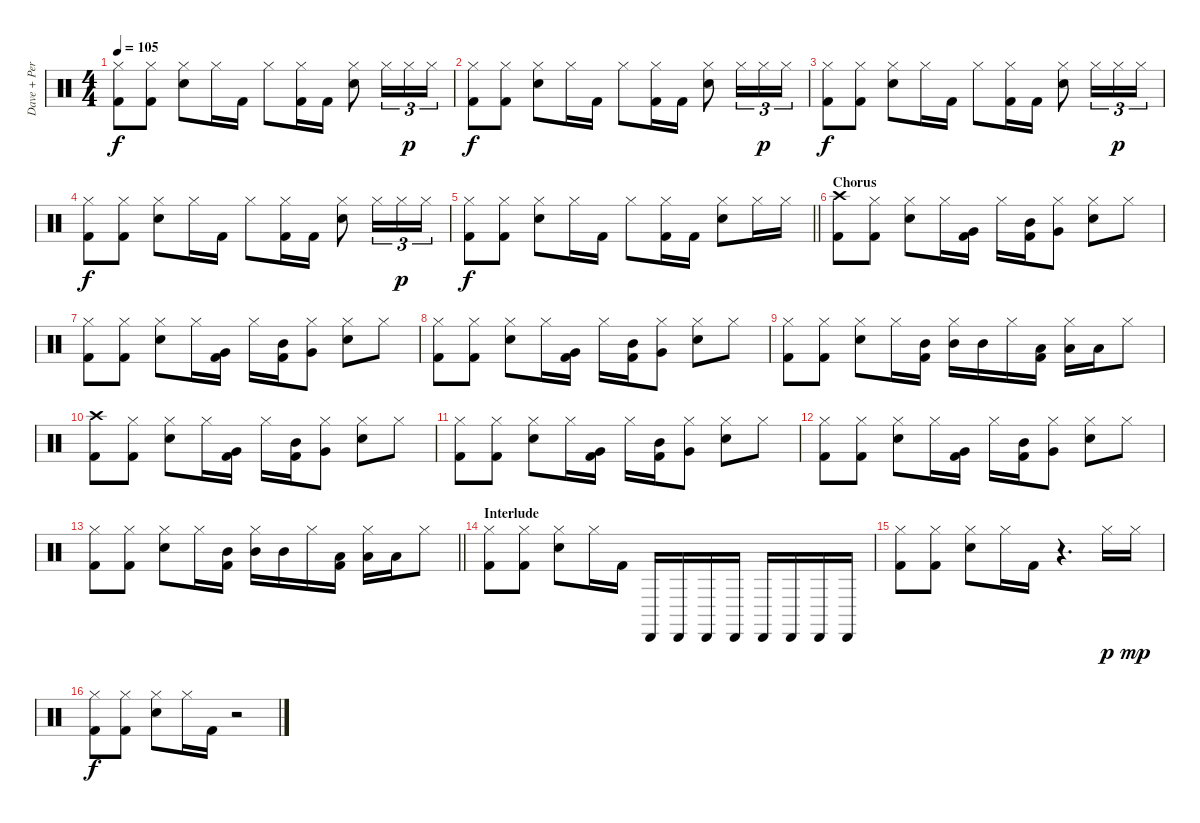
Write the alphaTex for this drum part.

\track ("Dave + Perc" "Dave + Per") {instrument percussion}
\staff {score}
\articulation defaults
\ts (4 4)
\tempo 105
\clef neutral
\ks c
("Hi-Hat (closed)" "Kick (hit) 2").8{dy f} ("Hi-Hat (closed)" "Kick (hit) 2").8 ("Hi-Hat (closed)" "Snare (hit) 2").8 "Hi-Hat (closed)".16 "Kick (hit) 2".16 "Hi-Hat (closed)".8 ("Hi-Hat (closed)" "Kick (hit) 2").16 "Kick (hit) 2".16 ("Hi-Hat (closed)" "Snare (hit) 2").8 "Hi-Hat (closed)".16{tu (3 2)} "Hi-Hat (closed)".16{tu (3 2) dy p} "Hi-Hat (closed)".16{tu (3 2)} |
("Hi-Hat (closed)" "Kick (hit) 2").8{dy f} ("Hi-Hat (closed)" "Kick (hit) 2").8 ("Hi-Hat (closed)" "Snare (hit) 2").8 "Hi-Hat (closed)".16 "Kick (hit) 2".16 "Hi-Hat (closed)".8 ("Hi-Hat (closed)" "Kick (hit) 2").16 "Kick (hit) 2".16 ("Hi-Hat (closed)" "Snare (hit) 2").8 "Hi-Hat (closed)".16{tu (3 2)} "Hi-Hat (closed)".16{tu (3 2) dy p} "Hi-Hat (closed)".16{tu (3 2)} |
("Hi-Hat (closed)" "Kick (hit) 2").8{dy f} ("Hi-Hat (closed)" "Kick (hit) 2").8 ("Hi-Hat (closed)" "Snare (hit) 2").8 "Hi-Hat (closed)".16 "Kick (hit) 2".16 "Hi-Hat (closed)".8 ("Hi-Hat (closed)" "Kick (hit) 2").16 "Kick (hit) 2".16 ("Hi-Hat (closed)" "Snare (hit) 2").8 "Hi-Hat (closed)".16{tu (3 2)} "Hi-Hat (closed)".16{tu (3 2) dy p} "Hi-Hat (closed)".16{tu (3 2)} |
("Hi-Hat (closed)" "Kick (hit) 2").8{dy f} ("Hi-Hat (closed)" "Kick (hit) 2").8 ("Hi-Hat (closed)" "Snare (hit) 2").8 "Hi-Hat (closed)".16 "Kick (hit) 2".16 "Hi-Hat (closed)".8 ("Hi-Hat (closed)" "Kick (hit) 2").16 "Kick (hit) 2".16 ("Hi-Hat (closed)" "Snare (hit) 2").8 "Hi-Hat (closed)".16{tu (3 2)} "Hi-Hat (closed)".16{tu (3 2) dy p} "Hi-Hat (closed)".16{tu (3 2)} |
\barLineRight lightlight
("Hi-Hat (closed)" "Kick (hit) 2").8{dy f} ("Hi-Hat (closed)" "Kick (hit) 2").8 ("Hi-Hat (closed)" "Snare (hit) 2").8 "Hi-Hat (closed)".16 "Kick (hit) 2".16 "Hi-Hat (closed)".8 ("Hi-Hat (closed)" "Kick (hit) 2").16 "Kick (hit) 2".16 ("Hi-Hat (closed)" "Snare (hit) 2").8 "Hi-Hat (closed)".16 "Hi-Hat (closed)".16 |
\section ("" "Chorus")
("Crash high (hit)" "Kick (hit) 2").8 ("Hi-Hat (closed)" "Kick (hit) 2").8 ("Hi-Hat (closed)" "Snare (hit) 2").8 "Hi-Hat (closed)".16 ("Very Low Tom (hit)" "Kick (hit) 2").16 "Hi-Hat (closed)".16 ("Mid Tom (hit)" "Kick (hit) 2").16 ("Hi-Hat (closed)" "Very Low Tom (hit)").8 ("Hi-Hat (closed)" "Snare (hit) 2").8 "Hi-Hat (closed)".8 |
("Hi-Hat (closed)" "Kick (hit) 2").8 ("Hi-Hat (closed)" "Kick (hit) 2").8 ("Hi-Hat (closed)" "Snare (hit) 2").8 "Hi-Hat (closed)".16 ("Very Low Tom (hit)" "Kick (hit) 2").16 "Hi-Hat (closed)".16 ("Mid Tom (hit)" "Kick (hit) 2").16 ("Hi-Hat (closed)" "Very Low Tom (hit)").8 ("Hi-Hat (closed)" "Snare (hit) 2").8 "Hi-Hat (closed)".8 |
("Hi-Hat (closed)" "Kick (hit) 2").8 ("Hi-Hat (closed)" "Kick (hit) 2").8 ("Hi-Hat (closed)" "Snare (hit) 2").8 "Hi-Hat (closed)".16 ("Very Low Tom (hit)" "Kick (hit) 2").16 "Hi-Hat (closed)".16 ("Mid Tom (hit)" "Kick (hit) 2").16 ("Hi-Hat (closed)" "Very Low Tom (hit)").8 ("Hi-Hat (closed)" "Snare (hit) 2").8 "Hi-Hat (closed)".8 |
("Hi-Hat (closed)" "Kick (hit) 2").8 ("Hi-Hat (closed)" "Kick (hit) 2").8 ("Hi-Hat (closed)" "Snare (hit) 2").8 "Hi-Hat (closed)".16 ("Mid Tom (hit)" "Kick (hit) 2").16 ("Hi-Hat (closed)" "Mid Tom (hit)").16 "Mid Tom (hit)".16 "Hi-Hat (closed)".16 ("Low Tom (hit)" "Kick (hit) 2").16 ("Hi-Hat (closed)" "Low Tom (hit)").16 "Low Tom (hit)".16 "Hi-Hat (closed)".8 |
("Crash high (hit)" "Kick (hit) 2").8 ("Hi-Hat (closed)" "Kick (hit) 2").8 ("Hi-Hat (closed)" "Snare (hit) 2").8 "Hi-Hat (closed)".16 ("Very Low Tom (hit)" "Kick (hit) 2").16 "Hi-Hat (closed)".16 ("Mid Tom (hit)" "Kick (hit) 2").16 ("Hi-Hat (closed)" "Very Low Tom (hit)").8 ("Hi-Hat (closed)" "Snare (hit) 2").8 "Hi-Hat (closed)".8 |
("Hi-Hat (closed)" "Kick (hit) 2").8 ("Hi-Hat (closed)" "Kick (hit) 2").8 ("Hi-Hat (closed)" "Snare (hit) 2").8 "Hi-Hat (closed)".16 ("Very Low Tom (hit)" "Kick (hit) 2").16 "Hi-Hat (closed)".16 ("Mid Tom (hit)" "Kick (hit) 2").16 ("Hi-Hat (closed)" "Very Low Tom (hit)").8 ("Hi-Hat (closed)" "Snare (hit) 2").8 "Hi-Hat (closed)".8 |
("Hi-Hat (closed)" "Kick (hit) 2").8 ("Hi-Hat (closed)" "Kick (hit) 2").8 ("Hi-Hat (closed)" "Snare (hit) 2").8 "Hi-Hat (closed)".16 ("Very Low Tom (hit)" "Kick (hit) 2").16 "Hi-Hat (closed)".16 ("Mid Tom (hit)" "Kick (hit) 2").16 ("Hi-Hat (closed)" "Very Low Tom (hit)").8 ("Hi-Hat (closed)" "Snare (hit) 2").8 "Hi-Hat (closed)".8 |
\barLineRight lightlight
("Hi-Hat (closed)" "Kick (hit) 2").8 ("Hi-Hat (closed)" "Kick (hit) 2").8 ("Hi-Hat (closed)" "Snare (hit) 2").8 "Hi-Hat (closed)".16 ("Mid Tom (hit)" "Kick (hit) 2").16 ("Hi-Hat (closed)" "Mid Tom (hit)").16 "Mid Tom (hit)".16 "Hi-Hat (closed)".16 ("Low Tom (hit)" "Kick (hit) 2").16 ("Hi-Hat (closed)" "Low Tom (hit)").16 "Low Tom (hit)".16 "Hi-Hat (closed)".8 |
\section ("" "Interlude")
("Hi-Hat (closed)" "Kick (hit) 2").8 ("Hi-Hat (closed)" "Kick (hit) 2").8 ("Hi-Hat (closed)" "Snare (hit) 2").8 "Hi-Hat (closed)".16 "Kick (hit) 2".16 "Cabasa (hit)".16 "Cabasa (hit)".16 "Cabasa (hit)".16 "Cabasa (hit)".16 "Cabasa (hit)".16 "Cabasa (hit)".16 "Cabasa (hit)".16 "Cabasa (hit)".16 |
("Hi-Hat (closed)" "Kick (hit) 2").8 ("Hi-Hat (closed)" "Kick (hit) 2").8 ("Hi-Hat (closed)" "Snare (hit) 2").8 "Hi-Hat (closed)".16 "Kick (hit) 2".16 r.4{d} "Hi-Hat (closed)".16{dy p} "Hi-Hat (closed)".16{dy mp} |
("Hi-Hat (closed)" "Kick (hit) 2").8{dy f} ("Hi-Hat (closed)" "Kick (hit) 2").8 ("Hi-Hat (closed)" "Snare (hit) 2").8 "Hi-Hat (closed)".16 "Kick (hit) 2".16 r.2
